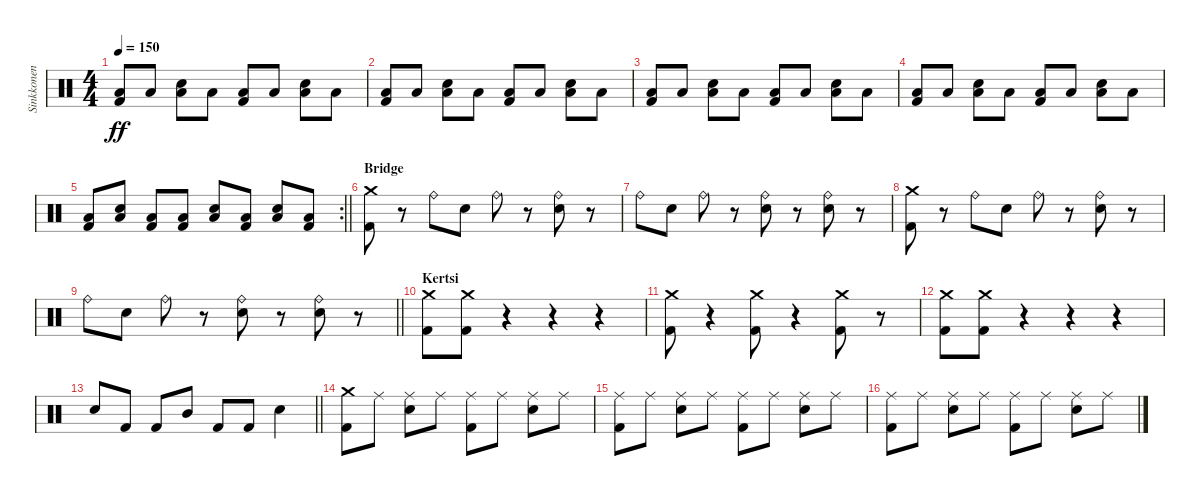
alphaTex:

\track ("Sinkkonen" "Sinkkonen") {instrument percussion}
\staff {score}
\articulation defaults
\ts (4 4)
\tempo 150
\clef neutral
\ks c
("Low Floor Tom (hit)" "Kick (hit) 2").8{dy ff} "Low Floor Tom (hit)".8 ("Snare (hit) 2" "Low Floor Tom (hit)").8 "Low Floor Tom (hit)".8 ("Low Floor Tom (hit)" "Kick (hit) 2").8 "Low Floor Tom (hit)".8 ("Snare (hit) 2" "Low Floor Tom (hit)").8 "Low Floor Tom (hit)".8 |
("Low Floor Tom (hit)" "Kick (hit) 2").8 "Low Floor Tom (hit)".8 ("Snare (hit) 2" "Low Floor Tom (hit)").8 "Low Floor Tom (hit)".8 ("Low Floor Tom (hit)" "Kick (hit) 2").8 "Low Floor Tom (hit)".8 ("Snare (hit) 2" "Low Floor Tom (hit)").8 "Low Floor Tom (hit)".8 |
("Low Floor Tom (hit)" "Kick (hit) 2").8 "Low Floor Tom (hit)".8 ("Snare (hit) 2" "Low Floor Tom (hit)").8 "Low Floor Tom (hit)".8 ("Low Floor Tom (hit)" "Kick (hit) 2").8 "Low Floor Tom (hit)".8 ("Snare (hit) 2" "Low Floor Tom (hit)").8 "Low Floor Tom (hit)".8 |
("Low Floor Tom (hit)" "Kick (hit) 2").8 "Low Floor Tom (hit)".8 ("Snare (hit) 2" "Low Floor Tom (hit)").8 "Low Floor Tom (hit)".8 ("Low Floor Tom (hit)" "Kick (hit) 2").8 "Low Floor Tom (hit)".8 ("Snare (hit) 2" "Low Floor Tom (hit)").8 "Low Floor Tom (hit)".8 |
\rc 2
\barLineRight lightlight
("Low Floor Tom (hit)" "Kick (hit) 2").8 ("Snare (hit) 2" "Low Floor Tom (hit)").8 ("Low Floor Tom (hit)" "Kick (hit) 2").8 ("Low Floor Tom (hit)" "Kick (hit) 2").8 ("Snare (hit) 2" "Low Floor Tom (hit)").8 ("Low Floor Tom (hit)" "Kick (hit) 2").8 ("Snare (hit) 2" "Low Floor Tom (hit)").8 ("Low Floor Tom (hit)" "Kick (hit) 2").8 |
\section ("" "Bridge")
("Crash medium (hit)" "Kick (hit) 2").8 r.8 "Ride (bell)".8 "Snare (hit) 2".8 "Ride (bell)".8 r.8 ("Ride (bell)" "Snare (hit) 2").8 r.8 |
"Ride (bell)".8 "Snare (hit) 2".8 "Ride (bell)".8 r.8 ("Ride (bell)" "Snare (hit) 2").8 r.8 ("Ride (bell)" "Snare (hit) 2").8 r.8 |
("Crash medium (hit)" "Kick (hit) 2").8 r.8 "Ride (bell)".8 "Snare (hit) 2".8 "Ride (bell)".8 r.8 ("Ride (bell)" "Snare (hit) 2").8 r.8 |
\barLineRight lightlight "Ride (bell)".8 "Snare (hit) 2".8 "Ride (bell)".8
r.8 ("Ride (bell)" "Snare (hit) 2").8 r.8 ("Ride (bell)" "Snare (hit) 2").8 r.8 |
\section ("" "Kertsi")
("Crash medium (hit)" "Kick (hit) 2").8 ("Crash medium (hit)" "Kick (hit) 2").8 r.4 r.4 r.4 |
("Crash medium (hit)" "Kick (hit) 2").8 r.4 ("Crash medium (hit)" "Kick (hit) 2").8 r.4 ("Crash medium (hit)" "Kick (hit) 2").8 r.8 |
("Crash medium (hit)" "Kick (hit) 2").8 ("Crash medium (hit)" "Kick (hit) 2").8 r.4 r.4 r.4 |
\barLineRight lightlight "Snare (hit) 2".8 "Kick (hit) 2".8 "Kick (hit) 2".8 "Mid Tom (hit)".8 "Kick (hit) 2".8 "Kick (hit) 2".8 "Snare (hit) 2".4
|
\section ("" "")
("Crash medium (hit)" "Kick (hit) 2").8 "Ride (middle)".8 ("Ride (middle)" "Snare (hit) 2").8 "Ride (middle)".8 ("Ride (middle)" "Kick (hit) 2").8 "Ride (middle)".8 ("Ride (middle)" "Snare (hit) 2").8 "Ride (middle)".8 |
("Ride (middle)" "Kick (hit) 2").8 "Ride (middle)".8 ("Ride (middle)" "Snare (hit) 2").8 "Ride (middle)".8 ("Ride (middle)" "Kick (hit) 2").8 "Ride (middle)".8 ("Ride (middle)" "Snare (hit) 2").8 "Ride (middle)".8 |
("Ride (middle)" "Kick (hit) 2").8 "Ride (middle)".8 ("Ride (middle)" "Snare (hit) 2").8 "Ride (middle)".8 ("Ride (middle)" "Kick (hit) 2").8 "Ride (middle)".8 ("Ride (middle)" "Snare (hit) 2").8 "Ride (middle)".8
